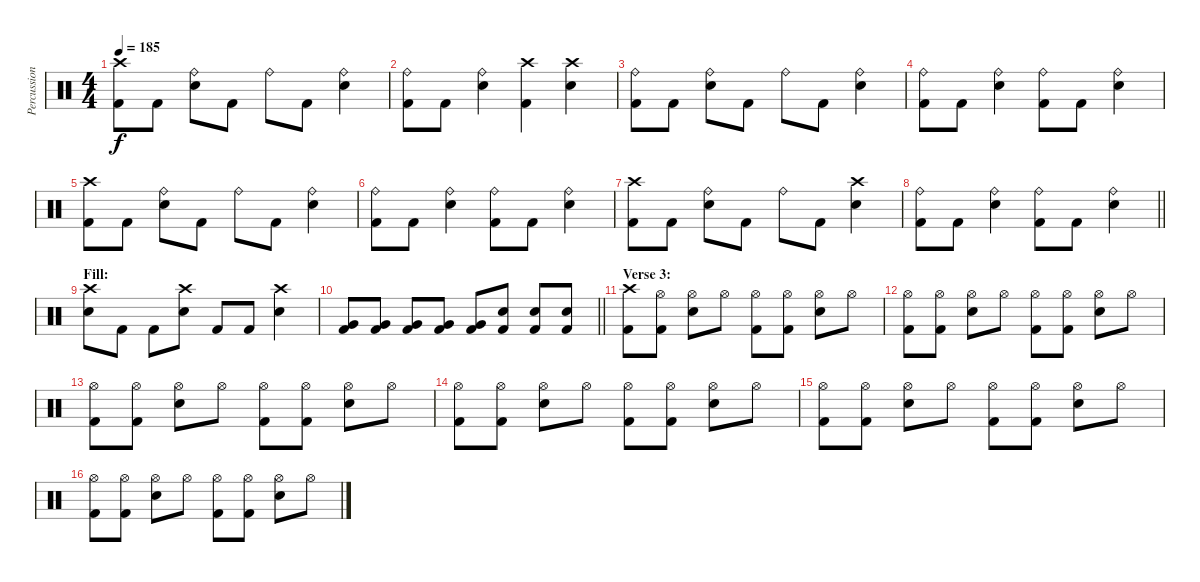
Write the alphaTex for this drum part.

\track ("Percussion" "Percussion") {instrument percussion}
\staff {score}
\articulation defaults
\ts (4 4)
\tempo 185
\clef neutral
\ks c
("Crash high (hit)" "Kick (hit) 2").8{dy f} "Kick (hit) 2".8 ("Ride (bell)" "Snare (hit) 2").8 "Kick (hit) 2".8 "Ride (bell)".8 "Kick (hit) 2".8 ("Ride (bell)" "Snare (hit) 2").4 |
("Ride (bell)" "Kick (hit) 2").8 "Kick (hit) 2".8 ("Ride (bell)" "Snare (hit) 2").4 ("Crash high (hit)" "Kick (hit) 2").4 ("Crash high (hit)" "Snare (hit) 2").4 |
("Ride (bell)" "Kick (hit) 2").8 "Kick (hit) 2".8 ("Ride (bell)" "Snare (hit) 2").8 "Kick (hit) 2".8 "Ride (bell)".8 "Kick (hit) 2".8 ("Ride (bell)" "Snare (hit) 2").4 |
("Ride (bell)" "Kick (hit) 2").8 "Kick (hit) 2".8 ("Ride (bell)" "Snare (hit) 2").4 ("Ride (bell)" "Kick (hit) 2").8 "Kick (hit) 2".8 ("Ride (bell)" "Snare (hit) 2").4 |
("Crash high (hit)" "Kick (hit) 2").8 "Kick (hit) 2".8 ("Ride (bell)" "Snare (hit) 2").8 "Kick (hit) 2".8 "Ride (bell)".8 "Kick (hit) 2".8 ("Ride (bell)" "Snare (hit) 2").4 |
("Ride (bell)" "Kick (hit) 2").8 "Kick (hit) 2".8 ("Ride (bell)" "Snare (hit) 2").4 ("Ride (bell)" "Kick (hit) 2").8 "Kick (hit) 2".8 ("Ride (bell)" "Snare (hit) 2").4 |
("Crash high (hit)" "Kick (hit) 2").8 "Kick (hit) 2".8 ("Ride (bell)" "Snare (hit) 2").8 "Kick (hit) 2".8 "Ride (bell)".8 "Kick (hit) 2".8 ("Crash high (hit)" "Snare (hit) 2").4 |
\barLineRight lightlight
("Ride (bell)" "Kick (hit) 2").8 "Kick (hit) 2".8 ("Ride (bell)" "Snare (hit) 2").4 ("Ride (bell)" "Kick (hit) 2").8 "Kick (hit) 2".8 ("Ride (bell)" "Snare (hit) 2").4 |
\section ("" "Fill:")
("Crash high (hit)" "Snare (hit) 2").8 "Kick (hit) 2".8 "Kick (hit) 2".8 ("Crash high (hit)" "Snare (hit) 2").8 "Kick (hit) 2".8 "Kick (hit) 2".8 ("Crash high (hit)" "Snare (hit) 2").4 |
\barLineRight lightlight
("Very Low Tom (hit)" "Kick (hit) 2").8 ("Very Low Tom (hit)" "Kick (hit) 2").8 ("Very Low Tom (hit)" "Kick (hit) 2").8 ("Very Low Tom (hit)" "Kick (hit) 2").8 ("Very Low Tom (hit)" "Kick (hit) 2").8 ("Snare (hit) 2" "Kick (hit) 2").8 ("Snare (hit) 2" "Kick (hit) 2").8 ("Snare (hit) 2" "Kick (hit) 2").8 |
\section ("" "Verse 3:")
("Crash high (hit)" "Kick (hit) 2").8 ("Hi-Hat (open)" "Kick (hit) 2").8 ("Hi-Hat (open)" "Snare (hit) 2").8 "Hi-Hat (open)".8 ("Hi-Hat (open)" "Kick (hit) 2").8 ("Hi-Hat (open)" "Kick (hit) 2").8 ("Hi-Hat (open)" "Snare (hit) 2").8 "Hi-Hat (open)".8 |
("Hi-Hat (open)" "Kick (hit) 2").8 ("Hi-Hat (open)" "Kick (hit) 2").8 ("Hi-Hat (open)" "Snare (hit) 2").8 "Hi-Hat (open)".8 ("Hi-Hat (open)" "Kick (hit) 2").8 ("Hi-Hat (open)" "Kick (hit) 2").8 ("Hi-Hat (open)" "Snare (hit) 2").8 "Hi-Hat (open)".8 |
("Hi-Hat (open)" "Kick (hit) 2").8 ("Hi-Hat (open)" "Kick (hit) 2").8 ("Hi-Hat (open)" "Snare (hit) 2").8 "Hi-Hat (open)".8 ("Hi-Hat (open)" "Kick (hit) 2").8 ("Hi-Hat (open)" "Kick (hit) 2").8 ("Hi-Hat (open)" "Snare (hit) 2").8 "Hi-Hat (open)".8 |
("Hi-Hat (open)" "Kick (hit) 2").8 ("Hi-Hat (open)" "Kick (hit) 2").8 ("Hi-Hat (open)" "Snare (hit) 2").8 "Hi-Hat (open)".8 ("Hi-Hat (open)" "Kick (hit) 2").8 ("Hi-Hat (open)" "Kick (hit) 2").8 ("Hi-Hat (open)" "Snare (hit) 2").8 "Hi-Hat (open)".8 |
("Hi-Hat (open)" "Kick (hit) 2").8 ("Hi-Hat (open)" "Kick (hit) 2").8 ("Hi-Hat (open)" "Snare (hit) 2").8 "Hi-Hat (open)".8 ("Hi-Hat (open)" "Kick (hit) 2").8 ("Hi-Hat (open)" "Kick (hit) 2").8 ("Hi-Hat (open)" "Snare (hit) 2").8 "Hi-Hat (open)".8 |
("Hi-Hat (open)" "Kick (hit) 2").8 ("Hi-Hat (open)" "Kick (hit) 2").8 ("Hi-Hat (open)" "Snare (hit) 2").8 "Hi-Hat (open)".8 ("Hi-Hat (open)" "Kick (hit) 2").8 ("Hi-Hat (open)" "Kick (hit) 2").8 ("Hi-Hat (open)" "Snare (hit) 2").8 "Hi-Hat (open)".8
